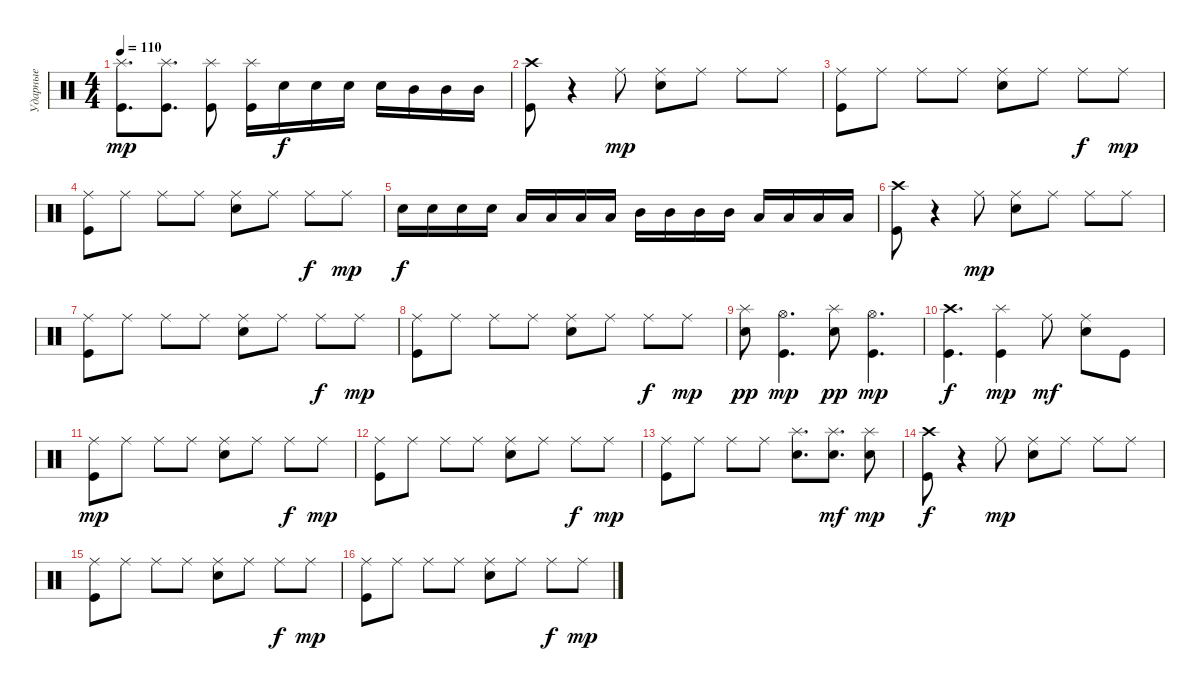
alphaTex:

\track ("Ударные" "Ударные") {instrument percussion}
\staff {score}
\articulation defaults
\ts (4 4)
\tempo 110
\clef neutral
\ks c
("Splash (hit)" "Kick (hit)").8{d dy mp} ("Splash (hit)" "Kick (hit)").8{d} ("Splash (hit)" "Kick (hit)").8 ("Splash (hit)" "Kick (hit)").16 "Snare (hit) 2".16{dy f} "Snare (hit) 2".16 "Snare (hit) 2".16 "Snare (hit) 2".16 "Mid Tom (hit)".16 "Mid Tom (hit)".16 "Mid Tom (hit)".16 |
("Crash high (hit)" "Kick (hit)").8 r.4 "Ride (middle)".8{dy mp} ("Ride (middle)" "Snare (hit) 2").8 "Ride (middle)".8 "Ride (middle)".8 "Ride (middle)".8 |
("Ride (middle)" "Kick (hit)").8 "Ride (middle)".8 "Ride (middle)".8 "Ride (middle)".8 ("Ride (middle)" "Snare (hit) 2").8 "Ride (middle)".8 "Ride (middle)".8{dy f} "Ride (middle)".8{dy mp} |
("Ride (middle)" "Kick (hit)").8 "Ride (middle)".8 "Ride (middle)".8 "Ride (middle)".8 ("Ride (middle)" "Snare (hit) 2").8 "Ride (middle)".8 "Ride (middle)".8{dy f} "Ride (middle)".8{dy mp} |
"Snare (hit) 2".16{dy f} "Snare (hit) 2".16 "Snare (hit) 2".16 "Snare (hit) 2".16 "Low Tom (hit)".16 "Low Tom (hit)".16 "Low Tom (hit)".16 "Low Tom (hit)".16 "Mid Tom (hit)".16 "Mid Tom (hit)".16 "Mid Tom (hit)".16 "Mid Tom (hit)".16 "Low Tom (hit)".16 "Low Tom (hit)".16 "Low Tom (hit)".16 "Low Tom (hit)".16 |
("Crash high (hit)" "Kick (hit)").8 r.4 "Ride (middle)".8{dy mp} ("Ride (middle)" "Snare (hit) 2").8 "Ride (middle)".8 "Ride (middle)".8 "Ride (middle)".8 |
("Ride (middle)" "Kick (hit)").8 "Ride (middle)".8 "Ride (middle)".8 "Ride (middle)".8 ("Ride (middle)" "Snare (hit) 2").8 "Ride (middle)".8 "Ride (middle)".8{dy f} "Ride (middle)".8{dy mp} |
("Ride (middle)" "Kick (hit)").8 "Ride (middle)".8 "Ride (middle)".8 "Ride (middle)".8 ("Ride (middle)" "Snare (hit) 2").8 "Ride (middle)".8 "Ride (middle)".8{dy f} "Ride (middle)".8{dy mp} |
("Splash (hit)" "Electric Snare (hit)").8{dy pp} ("Hi-Hat (open)" "Kick (hit)").4{d dy mp} ("Splash (hit)" "Electric Snare (hit)").8{dy pp} ("Hi-Hat (open)" "Kick (hit)").4{d dy mp} |
("Crash high (hit)" "Kick (hit)").4{d dy f} ("Splash (hit)" "Kick (hit)").4{dy mp} "Ride (middle)".8{dy mf} ("Ride (middle)" "Snare (hit) 2").8 "Kick (hit)".8 |
("Ride (middle)" "Kick (hit)").8{dy mp} "Ride (middle)".8 "Ride (middle)".8 "Ride (middle)".8 ("Ride (middle)" "Snare (hit) 2").8 "Ride (middle)".8 "Ride (middle)".8{dy f} "Ride (middle)".8{dy mp} |
("Ride (middle)" "Kick (hit)").8 "Ride (middle)".8 "Ride (middle)".8 "Ride (middle)".8 ("Ride (middle)" "Snare (hit) 2").8 "Ride (middle)".8 "Ride (middle)".8{dy f} "Ride (middle)".8{dy mp} |
("Ride (middle)" "Kick (hit)").8 "Ride (middle)".8 "Ride (middle)".8 "Ride (middle)".8 ("Splash (hit)" "Snare (hit) 2").8{d} ("Splash (hit)" "Snare (hit) 2").8{d dy mf} ("Splash (hit)" "Snare (hit) 2").8{dy mp} |
("Crash high (hit)" "Kick (hit)").8{dy f} r.4 "Ride (middle)".8{dy mp} ("Ride (middle)" "Snare (hit) 2").8 "Ride (middle)".8 "Ride (middle)".8 "Ride (middle)".8 |
("Ride (middle)" "Kick (hit)").8 "Ride (middle)".8 "Ride (middle)".8 "Ride (middle)".8 ("Ride (middle)" "Snare (hit) 2").8 "Ride (middle)".8 "Ride (middle)".8{dy f} "Ride (middle)".8{dy mp} |
("Ride (middle)" "Kick (hit)").8 "Ride (middle)".8 "Ride (middle)".8 "Ride (middle)".8 ("Ride (middle)" "Snare (hit) 2").8 "Ride (middle)".8 "Ride (middle)".8{dy f} "Ride (middle)".8{dy mp}
